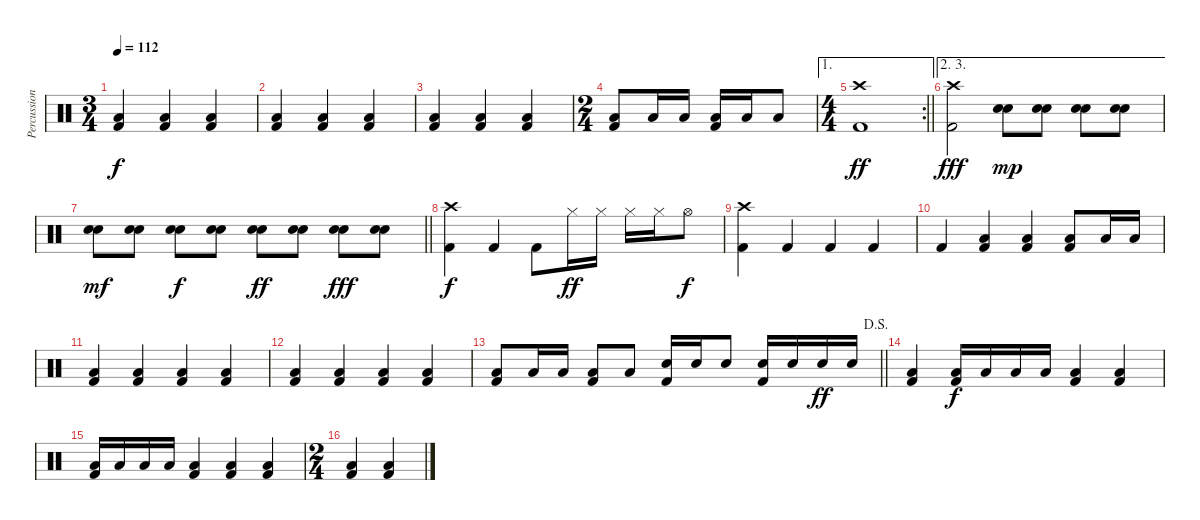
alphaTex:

\track ("Percussion" "Percussion") {instrument percussion}
\staff {score}
\articulation defaults
\ts (3 4)
\tempo 112
\clef neutral
\ks c
("Low Floor Tom (hit)" "Kick (hit) 2").4{dy f} ("Low Floor Tom (hit)" "Kick (hit) 2").4 ("Low Floor Tom (hit)" "Kick (hit) 2").4 |
("Low Floor Tom (hit)" "Kick (hit) 2").4 ("Low Floor Tom (hit)" "Kick (hit) 2").4 ("Low Floor Tom (hit)" "Kick (hit) 2").4 |
("Low Floor Tom (hit)" "Kick (hit) 2").4 ("Low Floor Tom (hit)" "Kick (hit) 2").4 ("Low Floor Tom (hit)" "Kick (hit) 2").4 |
\ts (2 4)
("Low Floor Tom (hit)" "Kick (hit) 2").8 "Low Floor Tom (hit)".16 "Low Floor Tom (hit)".16 ("Low Floor Tom (hit)" "Kick (hit) 2").16 "Low Floor Tom (hit)".16 "Low Floor Tom (hit)".8 |
\ae 1
\rc 2
\ts (4 4)
\barLineRight lightlight
("Crash high (hit)" "Kick (hit) 2").1{dy ff} |
\ae (2 3)
("Crash high (hit)" "Kick (hit) 2").2{dy fff} ("Snare (hit) 2" "Snare (hit) 2").8{dy mp} ("Snare (hit) 2" "Snare (hit) 2").8 ("Snare (hit) 2" "Snare (hit) 2").8 ("Snare (hit) 2" "Snare (hit) 2").8 |
\barLineRight lightlight
("Snare (hit) 2" "Snare (hit) 2").8{dy mf} ("Snare (hit) 2" "Snare (hit) 2").8 ("Snare (hit) 2" "Snare (hit) 2").8{dy f} ("Snare (hit) 2" "Snare (hit) 2").8 ("Snare (hit) 2" "Snare (hit) 2").8{dy ff} ("Snare (hit) 2" "Snare (hit) 2").8 ("Snare (hit) 2" "Snare (hit) 2").8{dy fff} ("Snare (hit) 2" "Snare (hit) 2").8 |
("Crash high (hit)" "Kick (hit) 2").4{dy f} "Kick (hit) 2".4 "Kick (hit) 2".8 "Hi-Hat (closed)".16{dy ff} "Hi-Hat (closed)".16 "Hi-Hat (closed)".16 "Hi-Hat (closed)".16 "Hi-Hat (open)".8{dy f} |
("Crash high (hit)" "Kick (hit) 2").4 "Kick (hit) 2".4 "Kick (hit) 2".4 "Kick (hit) 2".4 |
"Kick (hit) 2".4 ("Low Floor Tom (hit)" "Kick (hit) 2").4 ("Low Floor Tom (hit)" "Kick (hit) 2").4 ("Low Floor Tom (hit)" "Kick (hit) 2").8 "Low Floor Tom (hit)".16 "Low Floor Tom (hit)".16 |
("Low Floor Tom (hit)" "Kick (hit) 2").4 ("Low Floor Tom (hit)" "Kick (hit) 2").4 ("Low Floor Tom (hit)" "Kick (hit) 2").4 ("Low Floor Tom (hit)" "Kick (hit) 2").4 |
("Low Floor Tom (hit)" "Kick (hit) 2").4 ("Low Floor Tom (hit)" "Kick (hit) 2").4 ("Low Floor Tom (hit)" "Kick (hit) 2").4 ("Low Floor Tom (hit)" "Kick (hit) 2").4 |
\jump dalsegno
\barLineRight lightlight
("Low Floor Tom (hit)" "Kick (hit) 2").8 "Low Floor Tom (hit)".16 "Low Floor Tom (hit)".16 ("Low Floor Tom (hit)" "Kick (hit) 2").8 "Low Floor Tom (hit)".8 ("Snare (hit) 2" "Kick (hit) 2").16 "Snare (hit) 2".16 "Snare (hit) 2".8 ("Snare (hit) 2" "Kick (hit) 2").16 "Snare (hit) 2".16 "Snare (hit) 2".16{dy ff} "Snare (hit) 2".16 |
("Low Floor Tom (hit)" "Kick (hit) 2").4 ("Low Floor Tom (hit)" "Kick (hit) 2").16{dy f} "Low Floor Tom (hit)".16 "Low Floor Tom (hit)".16 "Low Floor Tom (hit)".16 ("Low Floor Tom (hit)" "Kick (hit) 2").4 ("Low Floor Tom (hit)" "Kick (hit) 2").4 |
("Low Floor Tom (hit)" "Kick (hit) 2").16 "Low Floor Tom (hit)".16 "Low Floor Tom (hit)".16 "Low Floor Tom (hit)".16 ("Low Floor Tom (hit)" "Kick (hit) 2").4 ("Low Floor Tom (hit)" "Kick (hit) 2").4 ("Low Floor Tom (hit)" "Kick (hit) 2").4 |
\ts (2 4)
("Low Floor Tom (hit)" "Kick (hit) 2").4 ("Low Floor Tom (hit)" "Kick (hit) 2").4
